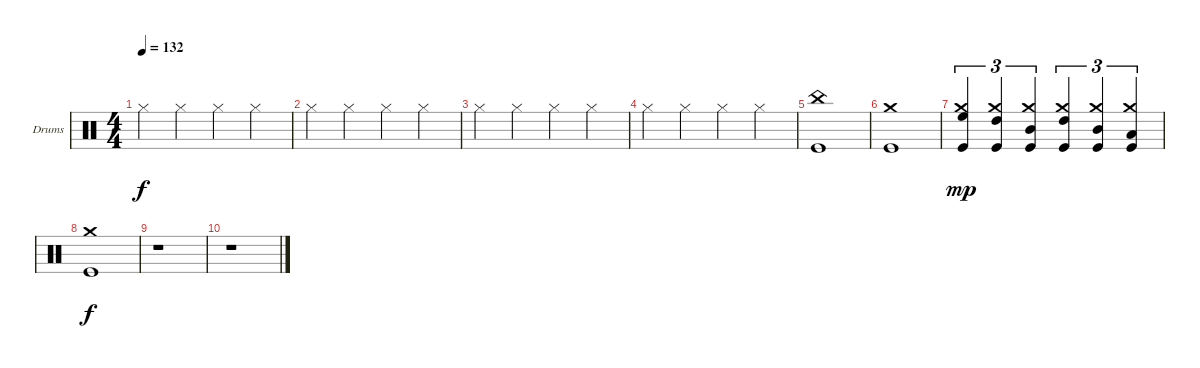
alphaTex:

\bracketExtendMode groupsimilarinstruments
\firstSystemTrackNameOrientation horizontal
\otherSystemsTrackNameOrientation horizontal
\track ("Drumkit" "Drums") {instrument percussion}
\staff {score}
\articulation defaults
\ts (4 4)
\tempo 132
\clef neutral
\ks c "Hi-Hat (closed)".4{dy f} "Hi-Hat (closed)".4 "Hi-Hat (closed)".4 "Hi-Hat (closed)".4
|
"Hi-Hat (closed)".4 "Hi-Hat (closed)".4 "Hi-Hat (closed)".4 "Hi-Hat (closed)".4 |
"Hi-Hat (closed)".4 "Hi-Hat (closed)".4 "Hi-Hat (closed)".4 "Hi-Hat (closed)".4 |
"Hi-Hat (closed)".4 "Hi-Hat (closed)".4 "Hi-Hat (closed)".4 "Hi-Hat (closed)".4 |
("China (hit)" "Kick (hit)").1 |
("Crash medium (hit)" "Kick (hit)").1 |
("Crash medium (hit)" "Kick (hit)" "High Floor Tom (hit)").4{tu (3 2) dy mp} ("Crash medium (hit)" "Kick (hit)" "High Tom (hit)").4{tu (3 2)} ("Crash medium (hit)" "Kick (hit)" "Mid Tom (hit)").4{tu (3 2)} ("Crash medium (hit)" "Kick (hit)" "High Tom (hit)").4{tu (3 2)} ("Crash medium (hit)" "Kick (hit)" "Mid Tom (hit)").4{tu (3 2)} ("Crash medium (hit)" "Kick (hit)" "Low Tom (hit)").4{tu (3 2)} |
("Crash medium (hit)" "Kick (hit)").1{dy f} |
r.1 |
r.1
